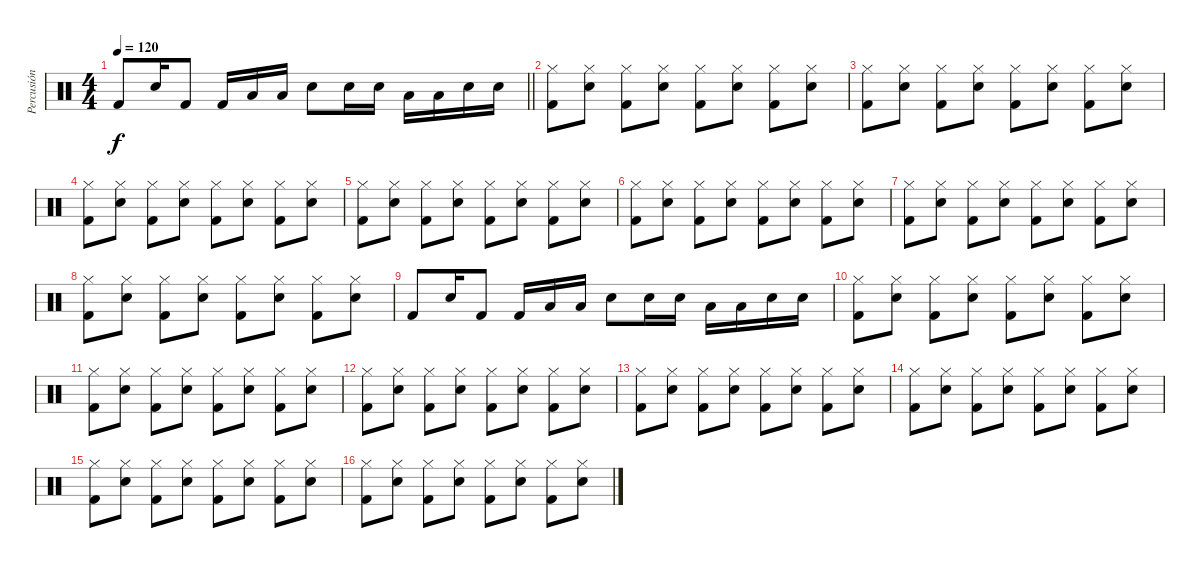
\track ("Percusión" "Percusión") {instrument percussion}
\staff {score}
\articulation defaults
\ts (4 4)
\tempo 120
\clef neutral
\barLineRight lightlight
\ks c "Kick (hit) 2".8{dy f} "Electric Snare (hit)".16 "Kick (hit) 2".8 "Kick (hit) 2".16 "Low Tom (hit)".16 "Low Tom (hit)".16 "Electric Snare (hit)".8 "Electric Snare (hit)".16 "Electric Snare (hit)".16 "Low Tom (hit)".16 "Low Tom (hit)".16 "Electric Snare (hit)".16 "Electric Snare (hit)".16
|
("Hi-Hat (closed)" "Kick (hit) 2").8 ("Hi-Hat (closed)" "Electric Snare (hit)").8 ("Hi-Hat (closed)" "Kick (hit) 2").8 ("Hi-Hat (closed)" "Electric Snare (hit)").8 ("Hi-Hat (closed)" "Kick (hit) 2").8 ("Hi-Hat (closed)" "Electric Snare (hit)").8 ("Hi-Hat (closed)" "Kick (hit) 2").8 ("Hi-Hat (closed)" "Electric Snare (hit)").8 |
("Hi-Hat (closed)" "Kick (hit) 2").8 ("Hi-Hat (closed)" "Electric Snare (hit)").8 ("Hi-Hat (closed)" "Kick (hit) 2").8 ("Hi-Hat (closed)" "Electric Snare (hit)").8 ("Hi-Hat (closed)" "Kick (hit) 2").8 ("Hi-Hat (closed)" "Electric Snare (hit)").8 ("Hi-Hat (closed)" "Kick (hit) 2").8 ("Hi-Hat (closed)" "Electric Snare (hit)").8 |
("Hi-Hat (closed)" "Kick (hit) 2").8 ("Hi-Hat (closed)" "Electric Snare (hit)").8 ("Hi-Hat (closed)" "Kick (hit) 2").8 ("Hi-Hat (closed)" "Electric Snare (hit)").8 ("Hi-Hat (closed)" "Kick (hit) 2").8 ("Hi-Hat (closed)" "Electric Snare (hit)").8 ("Hi-Hat (closed)" "Kick (hit) 2").8 ("Hi-Hat (closed)" "Electric Snare (hit)").8 |
("Hi-Hat (closed)" "Kick (hit) 2").8 ("Hi-Hat (closed)" "Electric Snare (hit)").8 ("Hi-Hat (closed)" "Kick (hit) 2").8 ("Hi-Hat (closed)" "Electric Snare (hit)").8 ("Hi-Hat (closed)" "Kick (hit) 2").8 ("Hi-Hat (closed)" "Electric Snare (hit)").8 ("Hi-Hat (closed)" "Kick (hit) 2").8 ("Hi-Hat (closed)" "Electric Snare (hit)").8 |
("Hi-Hat (closed)" "Kick (hit) 2").8 ("Hi-Hat (closed)" "Electric Snare (hit)").8 ("Hi-Hat (closed)" "Kick (hit) 2").8 ("Hi-Hat (closed)" "Electric Snare (hit)").8 ("Hi-Hat (closed)" "Kick (hit) 2").8 ("Hi-Hat (closed)" "Electric Snare (hit)").8 ("Hi-Hat (closed)" "Kick (hit) 2").8 ("Hi-Hat (closed)" "Electric Snare (hit)").8 |
("Hi-Hat (closed)" "Kick (hit) 2").8 ("Hi-Hat (closed)" "Electric Snare (hit)").8 ("Hi-Hat (closed)" "Kick (hit) 2").8 ("Hi-Hat (closed)" "Electric Snare (hit)").8 ("Hi-Hat (closed)" "Kick (hit) 2").8 ("Hi-Hat (closed)" "Electric Snare (hit)").8 ("Hi-Hat (closed)" "Kick (hit) 2").8 ("Hi-Hat (closed)" "Electric Snare (hit)").8 |
("Hi-Hat (closed)" "Kick (hit) 2").8 ("Hi-Hat (closed)" "Electric Snare (hit)").8 ("Hi-Hat (closed)" "Kick (hit) 2").8 ("Hi-Hat (closed)" "Electric Snare (hit)").8 ("Hi-Hat (closed)" "Kick (hit) 2").8 ("Hi-Hat (closed)" "Electric Snare (hit)").8 ("Hi-Hat (closed)" "Kick (hit) 2").8 ("Hi-Hat (closed)" "Electric Snare (hit)").8 |
"Kick (hit) 2".8 "Electric Snare (hit)".16 "Kick (hit) 2".8 "Kick (hit) 2".16 "Low Tom (hit)".16 "Low Tom (hit)".16 "Electric Snare (hit)".8 "Electric Snare (hit)".16 "Electric Snare (hit)".16 "Low Tom (hit)".16 "Low Tom (hit)".16 "Electric Snare (hit)".16 "Electric Snare (hit)".16 |
("Hi-Hat (closed)" "Kick (hit) 2").8 ("Hi-Hat (closed)" "Electric Snare (hit)").8 ("Hi-Hat (closed)" "Kick (hit) 2").8 ("Hi-Hat (closed)" "Electric Snare (hit)").8 ("Hi-Hat (closed)" "Kick (hit) 2").8 ("Hi-Hat (closed)" "Electric Snare (hit)").8 ("Hi-Hat (closed)" "Kick (hit) 2").8 ("Hi-Hat (closed)" "Electric Snare (hit)").8 |
("Hi-Hat (closed)" "Kick (hit) 2").8 ("Hi-Hat (closed)" "Electric Snare (hit)").8 ("Hi-Hat (closed)" "Kick (hit) 2").8 ("Hi-Hat (closed)" "Electric Snare (hit)").8 ("Hi-Hat (closed)" "Kick (hit) 2").8 ("Hi-Hat (closed)" "Electric Snare (hit)").8 ("Hi-Hat (closed)" "Kick (hit) 2").8 ("Hi-Hat (closed)" "Electric Snare (hit)").8 |
("Hi-Hat (closed)" "Kick (hit) 2").8 ("Hi-Hat (closed)" "Electric Snare (hit)").8 ("Hi-Hat (closed)" "Kick (hit) 2").8 ("Hi-Hat (closed)" "Electric Snare (hit)").8 ("Hi-Hat (closed)" "Kick (hit) 2").8 ("Hi-Hat (closed)" "Electric Snare (hit)").8 ("Hi-Hat (closed)" "Kick (hit) 2").8 ("Hi-Hat (closed)" "Electric Snare (hit)").8 |
("Hi-Hat (closed)" "Kick (hit) 2").8 ("Hi-Hat (closed)" "Electric Snare (hit)").8 ("Hi-Hat (closed)" "Kick (hit) 2").8 ("Hi-Hat (closed)" "Electric Snare (hit)").8 ("Hi-Hat (closed)" "Kick (hit) 2").8 ("Hi-Hat (closed)" "Electric Snare (hit)").8 ("Hi-Hat (closed)" "Kick (hit) 2").8 ("Hi-Hat (closed)" "Electric Snare (hit)").8 |
("Hi-Hat (closed)" "Kick (hit) 2").8 ("Hi-Hat (closed)" "Electric Snare (hit)").8 ("Hi-Hat (closed)" "Kick (hit) 2").8 ("Hi-Hat (closed)" "Electric Snare (hit)").8 ("Hi-Hat (closed)" "Kick (hit) 2").8 ("Hi-Hat (closed)" "Electric Snare (hit)").8 ("Hi-Hat (closed)" "Kick (hit) 2").8 ("Hi-Hat (closed)" "Electric Snare (hit)").8 |
("Hi-Hat (closed)" "Kick (hit) 2").8 ("Hi-Hat (closed)" "Electric Snare (hit)").8 ("Hi-Hat (closed)" "Kick (hit) 2").8 ("Hi-Hat (closed)" "Electric Snare (hit)").8 ("Hi-Hat (closed)" "Kick (hit) 2").8 ("Hi-Hat (closed)" "Electric Snare (hit)").8 ("Hi-Hat (closed)" "Kick (hit) 2").8 ("Hi-Hat (closed)" "Electric Snare (hit)").8 |
("Hi-Hat (closed)" "Kick (hit) 2").8 ("Hi-Hat (closed)" "Electric Snare (hit)").8 ("Hi-Hat (closed)" "Kick (hit) 2").8 ("Hi-Hat (closed)" "Electric Snare (hit)").8 ("Hi-Hat (closed)" "Kick (hit) 2").8 ("Hi-Hat (closed)" "Electric Snare (hit)").8 ("Hi-Hat (closed)" "Kick (hit) 2").8 ("Hi-Hat (closed)" "Electric Snare (hit)").8
